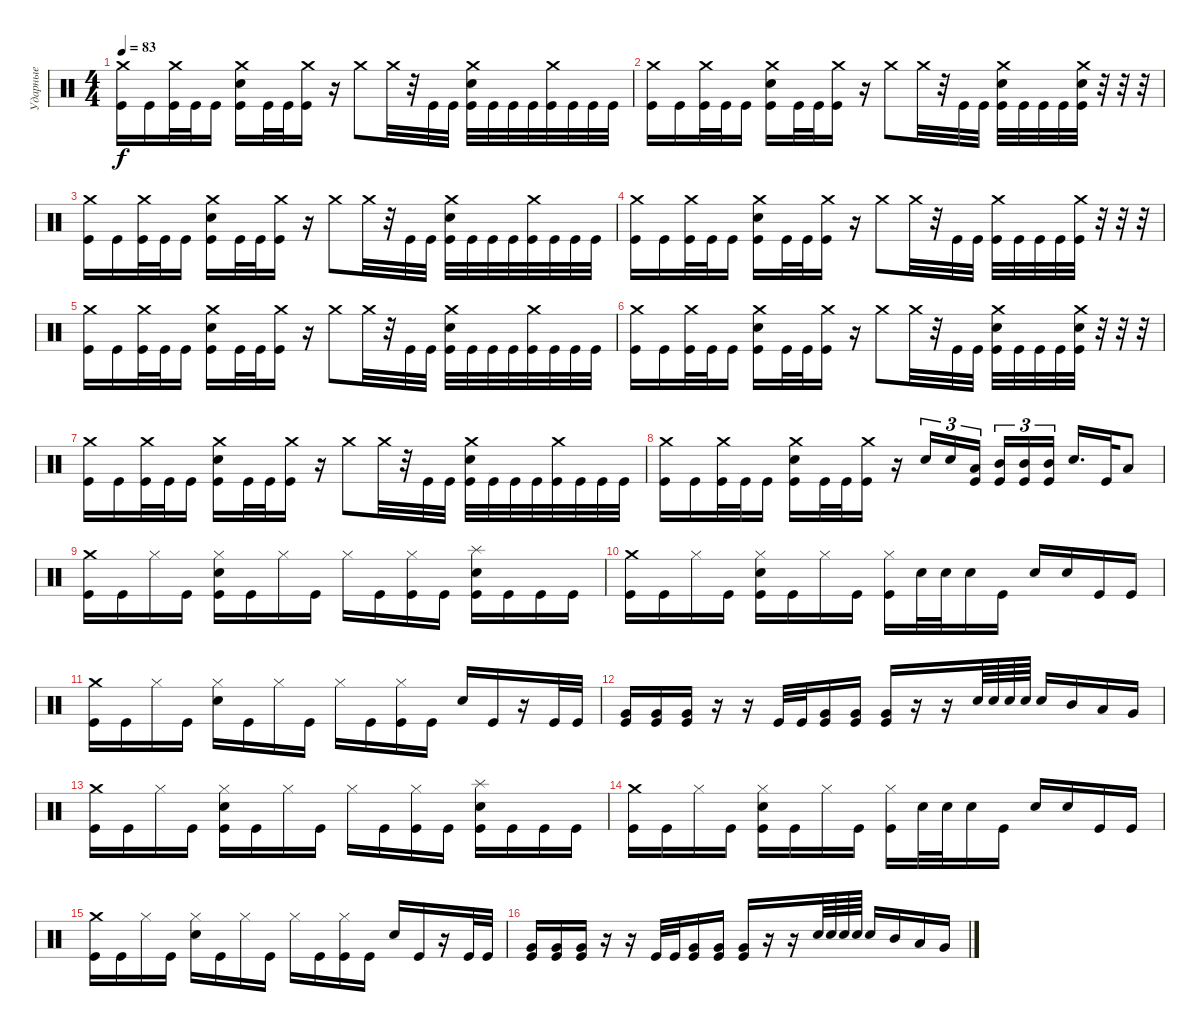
\track ("Ударные" "Ударные") {instrument percussion}
\staff {score}
\articulation defaults
\ts (4 4)
\tempo 83
\clef neutral
\ks c
("Crash medium (hit)" "Kick (hit)").16{dy f} "Kick (hit)".16 ("Crash medium (hit)" "Kick (hit)").32 "Kick (hit)".32 "Kick (hit)".16 ("Crash medium (hit)" "Snare (hit) 2" "Kick (hit)").16 "Kick (hit)".32 "Kick (hit)".32 ("Crash medium (hit)" "Kick (hit)").16 r.16 "Crash medium (hit)".8 "Crash medium (hit)".32 r.32 "Kick (hit)".32 "Kick (hit)".32 ("Crash medium (hit)" "Snare (hit) 2" "Kick (hit)").32 "Kick (hit)".32 "Kick (hit)".32 "Kick (hit)".32 ("Crash medium (hit)" "Kick (hit)").32 "Kick (hit)".32 "Kick (hit)".32 "Kick (hit)".32 |
("Crash medium (hit)" "Kick (hit)").16 "Kick (hit)".16 ("Crash medium (hit)" "Kick (hit)").32 "Kick (hit)".32 "Kick (hit)".16 ("Crash medium (hit)" "Snare (hit) 2" "Kick (hit)").16 "Kick (hit)".32 "Kick (hit)".32 ("Crash medium (hit)" "Kick (hit)").16 r.16 "Crash medium (hit)".8 "Crash medium (hit)".32 r.32 "Kick (hit)".32 "Kick (hit)".32 ("Crash medium (hit)" "Snare (hit) 2" "Kick (hit)").32 "Kick (hit)".32 "Kick (hit)".32 "Kick (hit)".32 ("Crash medium (hit)" "Snare (hit) 2" "Kick (hit)").32 r.32 r.32 r.32 |
("Crash medium (hit)" "Kick (hit)").16 "Kick (hit)".16 ("Crash medium (hit)" "Kick (hit)").32 "Kick (hit)".32 "Kick (hit)".16 ("Crash medium (hit)" "Snare (hit) 2" "Kick (hit)").16 "Kick (hit)".32 "Kick (hit)".32 ("Crash medium (hit)" "Kick (hit)").16 r.16 "Crash medium (hit)".8 "Crash medium (hit)".32 r.32 "Kick (hit)".32 "Kick (hit)".32 ("Crash medium (hit)" "Snare (hit) 2" "Kick (hit)").32 "Kick (hit)".32 "Kick (hit)".32 "Kick (hit)".32 ("Crash medium (hit)" "Kick (hit)").32 "Kick (hit)".32 "Kick (hit)".32 "Kick (hit)".32 |
("Crash medium (hit)" "Kick (hit)").16 "Kick (hit)".16 ("Crash medium (hit)" "Kick (hit)").32 "Kick (hit)".32 "Kick (hit)".16 ("Crash medium (hit)" "Snare (hit) 2" "Kick (hit)").16 "Kick (hit)".32 "Kick (hit)".32 ("Crash medium (hit)" "Kick (hit)").16 r.16 "Crash medium (hit)".8 "Crash medium (hit)".32 r.32 "Kick (hit)".32 "Kick (hit)".32 ("Crash medium (hit)" "Kick (hit)").32 "Kick (hit)".32 "Kick (hit)".32 "Kick (hit)".32 ("Crash medium (hit)" "Kick (hit)").32 r.32 r.32 r.32 |
("Crash medium (hit)" "Kick (hit)").16 "Kick (hit)".16 ("Crash medium (hit)" "Kick (hit)").32 "Kick (hit)".32 "Kick (hit)".16 ("Crash medium (hit)" "Snare (hit) 2" "Kick (hit)").16 "Kick (hit)".32 "Kick (hit)".32 ("Crash medium (hit)" "Kick (hit)").16 r.16 "Crash medium (hit)".8 "Crash medium (hit)".32 r.32 "Kick (hit)".32 "Kick (hit)".32 ("Crash medium (hit)" "Snare (hit) 2" "Kick (hit)").32 "Kick (hit)".32 "Kick (hit)".32 "Kick (hit)".32 ("Crash medium (hit)" "Kick (hit)").32 "Kick (hit)".32 "Kick (hit)".32 "Kick (hit)".32 |
("Crash medium (hit)" "Kick (hit)").16 "Kick (hit)".16 ("Crash medium (hit)" "Kick (hit)").32 "Kick (hit)".32 "Kick (hit)".16 ("Crash medium (hit)" "Snare (hit) 2" "Kick (hit)").16 "Kick (hit)".32 "Kick (hit)".32 ("Crash medium (hit)" "Kick (hit)").16 r.16 "Crash medium (hit)".8 "Crash medium (hit)".32 r.32 "Kick (hit)".32 "Kick (hit)".32 ("Crash medium (hit)" "Snare (hit) 2" "Kick (hit)").32 "Kick (hit)".32 "Kick (hit)".32 "Kick (hit)".32 ("Crash medium (hit)" "Snare (hit) 2" "Kick (hit)").32 r.32 r.32 r.32 |
("Crash medium (hit)" "Kick (hit)").16 "Kick (hit)".16 ("Crash medium (hit)" "Kick (hit)").32 "Kick (hit)".32 "Kick (hit)".16 ("Crash medium (hit)" "Snare (hit) 2" "Kick (hit)").16 "Kick (hit)".32 "Kick (hit)".32 ("Crash medium (hit)" "Kick (hit)").16 r.16 "Crash medium (hit)".8 "Crash medium (hit)".32 r.32 "Kick (hit)".32 "Kick (hit)".32 ("Crash medium (hit)" "Snare (hit) 2" "Kick (hit)").32 "Kick (hit)".32 "Kick (hit)".32 "Kick (hit)".32 ("Crash medium (hit)" "Kick (hit)").32 "Kick (hit)".32 "Kick (hit)".32 "Kick (hit)".32 |
("Crash medium (hit)" "Kick (hit)").16 "Kick (hit)".16 ("Crash medium (hit)" "Kick (hit)").32 "Kick (hit)".32 "Kick (hit)".16 ("Crash medium (hit)" "Snare (hit) 2" "Kick (hit)").16 "Kick (hit)".32 "Kick (hit)".32 ("Crash medium (hit)" "Kick (hit)").16 r.16 "Snare (hit) 2".16{tu (3 2)} "Snare (hit) 2".16{tu (3 2)} ("Low Tom (hit)" "Kick (hit)").16{tu (3 2) beam splitsecondary} ("Mid Tom (hit)" "Kick (hit)").16{tu (3 2)} ("Mid Tom (hit)" "Kick (hit)").16{tu (3 2)} ("Mid Tom (hit)" "Kick (hit)").16{tu (3 2)} "Snare (hit) 2".16{d} "Kick (hit)".32 "Low Floor Tom (hit)".8 |
("Crash medium (hit)" "Kick (hit)").16 "Kick (hit)".16 "Hi-Hat (closed)".16 "Kick (hit)".16 ("Hi-Hat (closed)" "Snare (hit) 2" "Kick (hit)").16 "Kick (hit)".16 "Hi-Hat (closed)".16 "Kick (hit)".16 "Hi-Hat (closed)".16 "Kick (hit)".16 ("Hi-Hat (closed)" "Kick (hit)").16 "Kick (hit)".16 ("Splash (hit)" "Snare (hit) 2" "Kick (hit)").16 "Kick (hit)".16 "Kick (hit)".16 "Kick (hit)".16 |
("Crash medium (hit)" "Kick (hit)").16 "Kick (hit)".16 "Hi-Hat (closed)".16 "Kick (hit)".16 ("Hi-Hat (closed)" "Snare (hit) 2" "Kick (hit)").16 "Kick (hit)".16 "Hi-Hat (closed)".16 "Kick (hit)".16 ("Hi-Hat (closed)" "Kick (hit)").16 "Snare (hit) 2".32 "Snare (hit) 2".32 "Snare (hit) 2".16 "Kick (hit)".16 "Snare (hit) 2".16 "Snare (hit) 2".16 "Kick (hit)".16 "Kick (hit)".16 |
("Crash medium (hit)" "Kick (hit)").16 "Kick (hit)".16 "Hi-Hat (closed)".16 "Kick (hit)".16 ("Hi-Hat (closed)" "Snare (hit) 2").16 "Kick (hit)".16 "Hi-Hat (closed)".16 "Kick (hit)".16 "Hi-Hat (closed)".16 "Kick (hit)".16 ("Hi-Hat (closed)" "Kick (hit)").16 "Kick (hit)".16 "Snare (hit) 2".16 "Kick (hit)".16 r.16 "Kick (hit)".32 "Kick (hit)".32 |
("Very Low Tom (hit)" "Kick (hit)").16 ("Very Low Tom (hit)" "Kick (hit)").16 ("Very Low Tom (hit)" "Kick (hit)").16 r.16 r.16 "Kick (hit)".32 "Kick (hit)".32 ("Very Low Tom (hit)" "Kick (hit)").16 ("Very Low Tom (hit)" "Kick (hit)").16 ("Very Low Tom (hit)" "Kick (hit)").16 r.16 r.16 "Snare (hit) 2".64 "Snare (hit) 2".64 "Snare (hit) 2".64 "Snare (hit) 2".64 "Snare (hit) 2".16 "Mid Tom (hit)".16 "Low Tom (hit)".16 "Very Low Tom (hit)".16 |
("Crash medium (hit)" "Kick (hit)").16 "Kick (hit)".16 "Hi-Hat (closed)".16 "Kick (hit)".16 ("Hi-Hat (closed)" "Snare (hit) 2" "Kick (hit)").16 "Kick (hit)".16 "Hi-Hat (closed)".16 "Kick (hit)".16 "Hi-Hat (closed)".16 "Kick (hit)".16 ("Hi-Hat (closed)" "Kick (hit)").16 "Kick (hit)".16 ("Splash (hit)" "Snare (hit) 2" "Kick (hit)").16 "Kick (hit)".16 "Kick (hit)".16 "Kick (hit)".16 |
("Crash medium (hit)" "Kick (hit)").16 "Kick (hit)".16 "Hi-Hat (closed)".16 "Kick (hit)".16 ("Hi-Hat (closed)" "Snare (hit) 2" "Kick (hit)").16 "Kick (hit)".16 "Hi-Hat (closed)".16 "Kick (hit)".16 ("Hi-Hat (closed)" "Kick (hit)").16 "Snare (hit) 2".32 "Snare (hit) 2".32 "Snare (hit) 2".16 "Kick (hit)".16 "Snare (hit) 2".16 "Snare (hit) 2".16 "Kick (hit)".16 "Kick (hit)".16 |
("Crash medium (hit)" "Kick (hit)").16 "Kick (hit)".16 "Hi-Hat (closed)".16 "Kick (hit)".16 ("Hi-Hat (closed)" "Snare (hit) 2").16 "Kick (hit)".16 "Hi-Hat (closed)".16 "Kick (hit)".16 "Hi-Hat (closed)".16 "Kick (hit)".16 ("Hi-Hat (closed)" "Kick (hit)").16 "Kick (hit)".16 "Snare (hit) 2".16 "Kick (hit)".16 r.16 "Kick (hit)".32 "Kick (hit)".32 |
("Very Low Tom (hit)" "Kick (hit)").16 ("Very Low Tom (hit)" "Kick (hit)").16 ("Very Low Tom (hit)" "Kick (hit)").16 r.16 r.16 "Kick (hit)".32 "Kick (hit)".32 ("Very Low Tom (hit)" "Kick (hit)").16 ("Very Low Tom (hit)" "Kick (hit)").16 ("Very Low Tom (hit)" "Kick (hit)").16 r.16 r.16 "Snare (hit) 2".64 "Snare (hit) 2".64 "Snare (hit) 2".64 "Snare (hit) 2".64 "Snare (hit) 2".16 "Mid Tom (hit)".16 "Low Tom (hit)".16 "Very Low Tom (hit)".16
